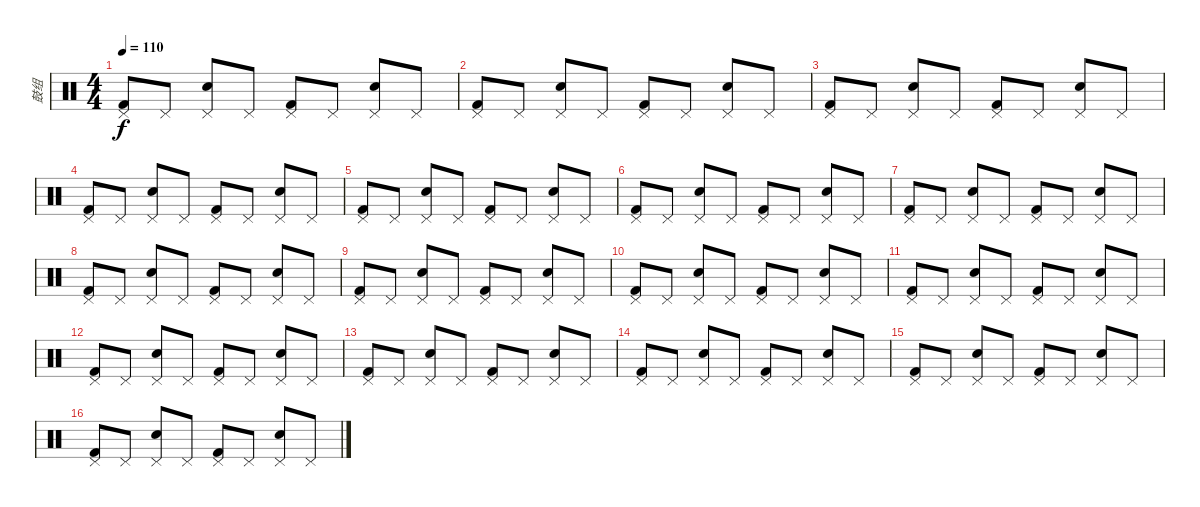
\track ("鼓组" "鼓组") {instrument percussion}
\staff {score}
\articulation defaults
\ts (4 4)
\tempo 110
\clef neutral
\ks c
("Kick (hit) 2" "Pedal Hi-Hat (hit)").8{dy f} "Pedal Hi-Hat (hit)".8 ("Electric Snare (hit)" "Pedal Hi-Hat (hit)").8 "Pedal Hi-Hat (hit)".8 ("Kick (hit) 2" "Pedal Hi-Hat (hit)").8 "Pedal Hi-Hat (hit)".8 ("Electric Snare (hit)" "Pedal Hi-Hat (hit)").8 "Pedal Hi-Hat (hit)".8 |
("Kick (hit) 2" "Pedal Hi-Hat (hit)").8 "Pedal Hi-Hat (hit)".8 ("Electric Snare (hit)" "Pedal Hi-Hat (hit)").8 "Pedal Hi-Hat (hit)".8 ("Kick (hit) 2" "Pedal Hi-Hat (hit)").8 "Pedal Hi-Hat (hit)".8 ("Electric Snare (hit)" "Pedal Hi-Hat (hit)").8 "Pedal Hi-Hat (hit)".8 |
("Kick (hit) 2" "Pedal Hi-Hat (hit)").8 "Pedal Hi-Hat (hit)".8 ("Electric Snare (hit)" "Pedal Hi-Hat (hit)").8 "Pedal Hi-Hat (hit)".8 ("Kick (hit) 2" "Pedal Hi-Hat (hit)").8 "Pedal Hi-Hat (hit)".8 ("Electric Snare (hit)" "Pedal Hi-Hat (hit)").8 "Pedal Hi-Hat (hit)".8 |
("Kick (hit) 2" "Pedal Hi-Hat (hit)").8 "Pedal Hi-Hat (hit)".8 ("Electric Snare (hit)" "Pedal Hi-Hat (hit)").8 "Pedal Hi-Hat (hit)".8 ("Kick (hit) 2" "Pedal Hi-Hat (hit)").8 "Pedal Hi-Hat (hit)".8 ("Electric Snare (hit)" "Pedal Hi-Hat (hit)").8 "Pedal Hi-Hat (hit)".8 |
("Kick (hit) 2" "Pedal Hi-Hat (hit)").8 "Pedal Hi-Hat (hit)".8 ("Electric Snare (hit)" "Pedal Hi-Hat (hit)").8 "Pedal Hi-Hat (hit)".8 ("Kick (hit) 2" "Pedal Hi-Hat (hit)").8 "Pedal Hi-Hat (hit)".8 ("Electric Snare (hit)" "Pedal Hi-Hat (hit)").8 "Pedal Hi-Hat (hit)".8 |
("Kick (hit) 2" "Pedal Hi-Hat (hit)").8 "Pedal Hi-Hat (hit)".8 ("Electric Snare (hit)" "Pedal Hi-Hat (hit)").8 "Pedal Hi-Hat (hit)".8 ("Kick (hit) 2" "Pedal Hi-Hat (hit)").8 "Pedal Hi-Hat (hit)".8 ("Electric Snare (hit)" "Pedal Hi-Hat (hit)").8 "Pedal Hi-Hat (hit)".8 |
("Kick (hit) 2" "Pedal Hi-Hat (hit)").8 "Pedal Hi-Hat (hit)".8 ("Electric Snare (hit)" "Pedal Hi-Hat (hit)").8 "Pedal Hi-Hat (hit)".8 ("Kick (hit) 2" "Pedal Hi-Hat (hit)").8 "Pedal Hi-Hat (hit)".8 ("Electric Snare (hit)" "Pedal Hi-Hat (hit)").8 "Pedal Hi-Hat (hit)".8 |
("Kick (hit) 2" "Pedal Hi-Hat (hit)").8 "Pedal Hi-Hat (hit)".8 ("Electric Snare (hit)" "Pedal Hi-Hat (hit)").8 "Pedal Hi-Hat (hit)".8 ("Kick (hit) 2" "Pedal Hi-Hat (hit)").8 "Pedal Hi-Hat (hit)".8 ("Electric Snare (hit)" "Pedal Hi-Hat (hit)").8 "Pedal Hi-Hat (hit)".8 |
("Kick (hit) 2" "Pedal Hi-Hat (hit)").8 "Pedal Hi-Hat (hit)".8 ("Electric Snare (hit)" "Pedal Hi-Hat (hit)").8 "Pedal Hi-Hat (hit)".8 ("Kick (hit) 2" "Pedal Hi-Hat (hit)").8 "Pedal Hi-Hat (hit)".8 ("Electric Snare (hit)" "Pedal Hi-Hat (hit)").8 "Pedal Hi-Hat (hit)".8 |
("Kick (hit) 2" "Pedal Hi-Hat (hit)").8 "Pedal Hi-Hat (hit)".8 ("Electric Snare (hit)" "Pedal Hi-Hat (hit)").8 "Pedal Hi-Hat (hit)".8 ("Kick (hit) 2" "Pedal Hi-Hat (hit)").8 "Pedal Hi-Hat (hit)".8 ("Electric Snare (hit)" "Pedal Hi-Hat (hit)").8 "Pedal Hi-Hat (hit)".8 |
("Kick (hit) 2" "Pedal Hi-Hat (hit)").8 "Pedal Hi-Hat (hit)".8 ("Electric Snare (hit)" "Pedal Hi-Hat (hit)").8 "Pedal Hi-Hat (hit)".8 ("Kick (hit) 2" "Pedal Hi-Hat (hit)").8 "Pedal Hi-Hat (hit)".8 ("Electric Snare (hit)" "Pedal Hi-Hat (hit)").8 "Pedal Hi-Hat (hit)".8 |
("Kick (hit) 2" "Pedal Hi-Hat (hit)").8 "Pedal Hi-Hat (hit)".8 ("Electric Snare (hit)" "Pedal Hi-Hat (hit)").8 "Pedal Hi-Hat (hit)".8 ("Kick (hit) 2" "Pedal Hi-Hat (hit)").8 "Pedal Hi-Hat (hit)".8 ("Electric Snare (hit)" "Pedal Hi-Hat (hit)").8 "Pedal Hi-Hat (hit)".8 |
("Kick (hit) 2" "Pedal Hi-Hat (hit)").8 "Pedal Hi-Hat (hit)".8 ("Electric Snare (hit)" "Pedal Hi-Hat (hit)").8 "Pedal Hi-Hat (hit)".8 ("Kick (hit) 2" "Pedal Hi-Hat (hit)").8 "Pedal Hi-Hat (hit)".8 ("Electric Snare (hit)" "Pedal Hi-Hat (hit)").8 "Pedal Hi-Hat (hit)".8 |
("Kick (hit) 2" "Pedal Hi-Hat (hit)").8 "Pedal Hi-Hat (hit)".8 ("Electric Snare (hit)" "Pedal Hi-Hat (hit)").8 "Pedal Hi-Hat (hit)".8 ("Kick (hit) 2" "Pedal Hi-Hat (hit)").8 "Pedal Hi-Hat (hit)".8 ("Electric Snare (hit)" "Pedal Hi-Hat (hit)").8 "Pedal Hi-Hat (hit)".8 |
("Kick (hit) 2" "Pedal Hi-Hat (hit)").8 "Pedal Hi-Hat (hit)".8 ("Electric Snare (hit)" "Pedal Hi-Hat (hit)").8 "Pedal Hi-Hat (hit)".8 ("Kick (hit) 2" "Pedal Hi-Hat (hit)").8 "Pedal Hi-Hat (hit)".8 ("Electric Snare (hit)" "Pedal Hi-Hat (hit)").8 "Pedal Hi-Hat (hit)".8 |
("Kick (hit) 2" "Pedal Hi-Hat (hit)").8 "Pedal Hi-Hat (hit)".8 ("Electric Snare (hit)" "Pedal Hi-Hat (hit)").8 "Pedal Hi-Hat (hit)".8 ("Kick (hit) 2" "Pedal Hi-Hat (hit)").8 "Pedal Hi-Hat (hit)".8 ("Electric Snare (hit)" "Pedal Hi-Hat (hit)").8 "Pedal Hi-Hat (hit)".8
